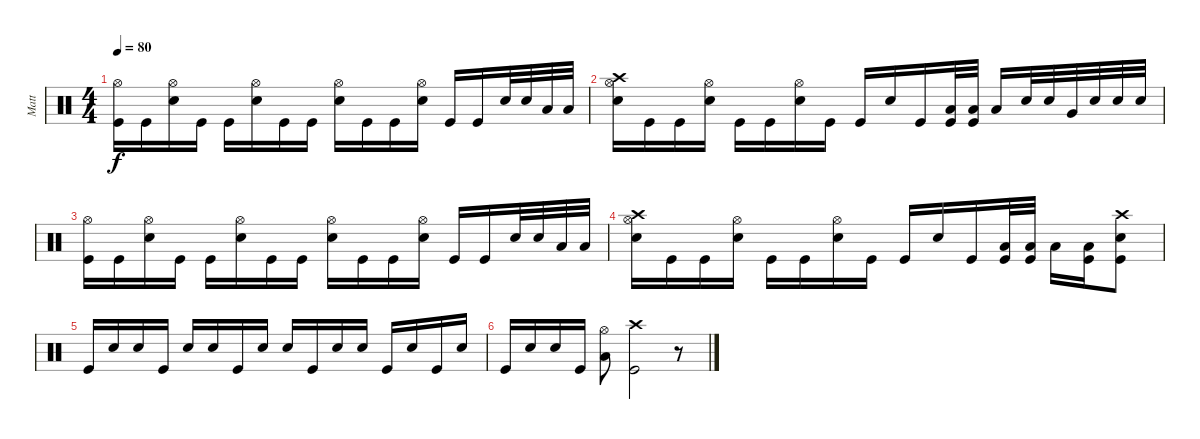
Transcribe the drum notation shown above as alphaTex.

\track ("Matt" "Matt") {instrument percussion}
\staff {score}
\articulation defaults
\ts (4 4)
\tempo 80
\clef neutral
\ks c
("Hi-Hat (open)" "Kick (hit)").16{dy f} "Kick (hit)".16 ("Hi-Hat (open)" "Electric Snare (hit)").16 "Kick (hit)".16 "Kick (hit)".16 ("Hi-Hat (open)" "Electric Snare (hit)").16 "Kick (hit)".16 "Kick (hit)".16 ("Hi-Hat (open)" "Electric Snare (hit)").16 "Kick (hit)".16 "Kick (hit)".16 ("Hi-Hat (open)" "Electric Snare (hit)").16 "Kick (hit)".16 "Kick (hit)".16 "Electric Snare (hit)".32 "Electric Snare (hit)".32 "Low Floor Tom (hit)".32 "Low Floor Tom (hit)".32 |
("Crash high (hit)" "Hi-Hat (open)" "Electric Snare (hit)").16 "Kick (hit)".16 "Kick (hit)".16 ("Hi-Hat (open)" "Electric Snare (hit)").16 "Kick (hit)".16 "Kick (hit)".16 ("Hi-Hat (open)" "Electric Snare (hit)").16 "Kick (hit)".16 "Kick (hit)".16 "Electric Snare (hit)".16 "Kick (hit)".16 ("Low Tom (hit)" "Kick (hit)").32 ("Low Tom (hit)" "Kick (hit)").32 "Low Tom (hit)".16 "Electric Snare (hit)".32 "Electric Snare (hit)".32 "Very Low Tom (hit)".32 "Electric Snare (hit)".32 "Electric Snare (hit)".32 "Electric Snare (hit)".32 |
("Hi-Hat (open)" "Kick (hit)").16 "Kick (hit)".16 ("Hi-Hat (open)" "Electric Snare (hit)").16 "Kick (hit)".16 "Kick (hit)".16 ("Hi-Hat (open)" "Electric Snare (hit)").16 "Kick (hit)".16 "Kick (hit)".16 ("Hi-Hat (open)" "Electric Snare (hit)").16 "Kick (hit)".16 "Kick (hit)".16 ("Hi-Hat (open)" "Electric Snare (hit)").16 "Kick (hit)".16 "Kick (hit)".16 "Electric Snare (hit)".32 "Electric Snare (hit)".32 "Low Floor Tom (hit)".32 "Low Floor Tom (hit)".32 |
("Crash high (hit)" "Hi-Hat (open)" "Electric Snare (hit)").16 "Kick (hit)".16 "Kick (hit)".16 ("Hi-Hat (open)" "Electric Snare (hit)").16 "Kick (hit)".16 "Kick (hit)".16 ("Hi-Hat (open)" "Electric Snare (hit)").16 "Kick (hit)".16 "Kick (hit)".16 "Electric Snare (hit)".16 "Kick (hit)".16 ("Low Tom (hit)" "Kick (hit)").32 ("Low Tom (hit)" "Kick (hit)").32 "Low Tom (hit)".16 ("Low Floor Tom (hit)" "Kick (hit)").16 ("Crash high (hit)" "Electric Snare (hit)" "Kick (hit)").8 |
"Kick (hit)".16 "Electric Snare (hit)".16 "Electric Snare (hit)".16 "Kick (hit)".16 "Electric Snare (hit)".16 "Electric Snare (hit)".16 "Kick (hit)".16 "Electric Snare (hit)".16 "Electric Snare (hit)".16 "Kick (hit)".16 "Electric Snare (hit)".16 "Electric Snare (hit)".16 "Kick (hit)".16 "Electric Snare (hit)".16 "Kick (hit)".16 "Electric Snare (hit)".16 |
"Kick (hit)".16 "Electric Snare (hit)".16 "Electric Snare (hit)".16 "Kick (hit)".16 ("Hi-Hat (open)" "Low Floor Tom (hit)").8 ("Crash high (hit)" "Kick (hit)").2 r.8
